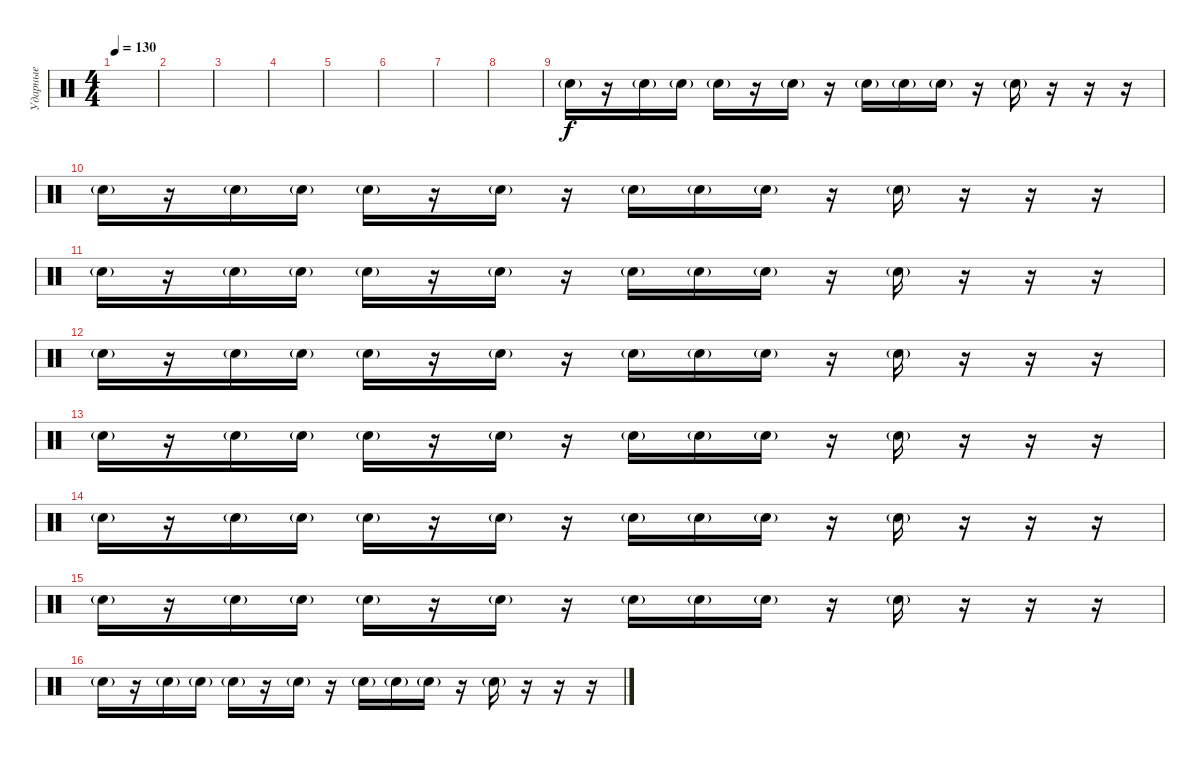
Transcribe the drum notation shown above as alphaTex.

\track ("Ударные" "Ударные") {instrument percussion}
\staff {score}
\articulation defaults
\ts (4 4)
\tempo 130
\clef neutral
\ks c
|
|
|
|
|
|
|
|
"Electric Snare (hit)"{g}.16 r.16 "Electric Snare (hit)"{g}.16 "Electric Snare (hit)"{g}.16 "Electric Snare (hit)"{g}.16 r.16 "Electric Snare (hit)"{g}.16 r.16 "Electric Snare (hit)"{g}.16 "Electric Snare (hit)"{g}.16 "Electric Snare (hit)"{g}.16 r.16 "Electric Snare (hit)"{g}.16 r.16 r.16 r.16 |
"Electric Snare (hit)"{g}.16 r.16 "Electric Snare (hit)"{g}.16 "Electric Snare (hit)"{g}.16 "Electric Snare (hit)"{g}.16 r.16 "Electric Snare (hit)"{g}.16 r.16 "Electric Snare (hit)"{g}.16 "Electric Snare (hit)"{g}.16 "Electric Snare (hit)"{g}.16 r.16 "Electric Snare (hit)"{g}.16 r.16 r.16 r.16 |
"Electric Snare (hit)"{g}.16 r.16 "Electric Snare (hit)"{g}.16 "Electric Snare (hit)"{g}.16 "Electric Snare (hit)"{g}.16 r.16 "Electric Snare (hit)"{g}.16 r.16 "Electric Snare (hit)"{g}.16 "Electric Snare (hit)"{g}.16 "Electric Snare (hit)"{g}.16 r.16 "Electric Snare (hit)"{g}.16 r.16 r.16 r.16 |
"Electric Snare (hit)"{g}.16 r.16 "Electric Snare (hit)"{g}.16 "Electric Snare (hit)"{g}.16 "Electric Snare (hit)"{g}.16 r.16 "Electric Snare (hit)"{g}.16 r.16 "Electric Snare (hit)"{g}.16 "Electric Snare (hit)"{g}.16 "Electric Snare (hit)"{g}.16 r.16 "Electric Snare (hit)"{g}.16 r.16 r.16 r.16 |
"Electric Snare (hit)"{g}.16 r.16 "Electric Snare (hit)"{g}.16 "Electric Snare (hit)"{g}.16 "Electric Snare (hit)"{g}.16 r.16 "Electric Snare (hit)"{g}.16 r.16 "Electric Snare (hit)"{g}.16 "Electric Snare (hit)"{g}.16 "Electric Snare (hit)"{g}.16 r.16 "Electric Snare (hit)"{g}.16 r.16 r.16 r.16 |
"Electric Snare (hit)"{g}.16 r.16 "Electric Snare (hit)"{g}.16 "Electric Snare (hit)"{g}.16 "Electric Snare (hit)"{g}.16 r.16 "Electric Snare (hit)"{g}.16 r.16 "Electric Snare (hit)"{g}.16 "Electric Snare (hit)"{g}.16 "Electric Snare (hit)"{g}.16 r.16 "Electric Snare (hit)"{g}.16 r.16 r.16 r.16 |
"Electric Snare (hit)"{g}.16 r.16 "Electric Snare (hit)"{g}.16 "Electric Snare (hit)"{g}.16 "Electric Snare (hit)"{g}.16 r.16 "Electric Snare (hit)"{g}.16 r.16 "Electric Snare (hit)"{g}.16 "Electric Snare (hit)"{g}.16 "Electric Snare (hit)"{g}.16 r.16 "Electric Snare (hit)"{g}.16 r.16 r.16 r.16 |
"Electric Snare (hit)"{g}.16 r.16 "Electric Snare (hit)"{g}.16 "Electric Snare (hit)"{g}.16 "Electric Snare (hit)"{g}.16 r.16 "Electric Snare (hit)"{g}.16 r.16 "Electric Snare (hit)"{g}.16 "Electric Snare (hit)"{g}.16 "Electric Snare (hit)"{g}.16 r.16 "Electric Snare (hit)"{g}.16 r.16 r.16 r.16
